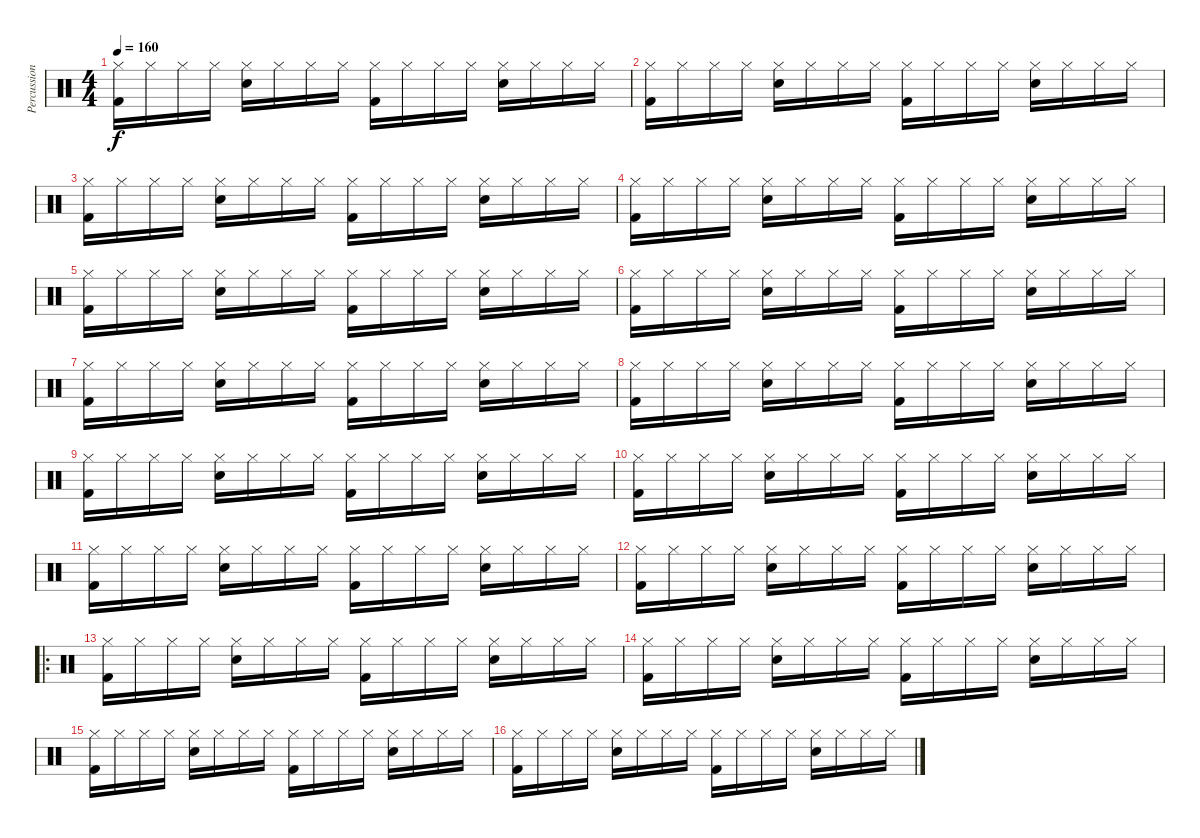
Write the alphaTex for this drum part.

\track ("Percussion" "Percussion") {instrument percussion}
\staff {score}
\articulation defaults
\ts (4 4)
\tempo 160
\clef neutral
\ks c
("Hi-Hat (closed)" "Kick (hit) 2").16{dy f} "Hi-Hat (closed)".16 "Hi-Hat (closed)".16 "Hi-Hat (closed)".16 ("Hi-Hat (closed)" "Snare (hit) 2").16 "Hi-Hat (closed)".16 "Hi-Hat (closed)".16 "Hi-Hat (closed)".16 ("Hi-Hat (closed)" "Kick (hit) 2").16 "Hi-Hat (closed)".16 "Hi-Hat (closed)".16 "Hi-Hat (closed)".16 ("Hi-Hat (closed)" "Snare (hit) 2").16 "Hi-Hat (closed)".16 "Hi-Hat (closed)".16 "Hi-Hat (closed)".16 |
("Hi-Hat (closed)" "Kick (hit) 2").16 "Hi-Hat (closed)".16 "Hi-Hat (closed)".16 "Hi-Hat (closed)".16 ("Hi-Hat (closed)" "Snare (hit) 2").16 "Hi-Hat (closed)".16 "Hi-Hat (closed)".16 "Hi-Hat (closed)".16 ("Hi-Hat (closed)" "Kick (hit) 2").16 "Hi-Hat (closed)".16 "Hi-Hat (closed)".16 "Hi-Hat (closed)".16 ("Hi-Hat (closed)" "Snare (hit) 2").16 "Hi-Hat (closed)".16 "Hi-Hat (closed)".16 "Hi-Hat (closed)".16 |
("Hi-Hat (closed)" "Kick (hit) 2").16 "Hi-Hat (closed)".16 "Hi-Hat (closed)".16 "Hi-Hat (closed)".16 ("Hi-Hat (closed)" "Snare (hit) 2").16 "Hi-Hat (closed)".16 "Hi-Hat (closed)".16 "Hi-Hat (closed)".16 ("Hi-Hat (closed)" "Kick (hit) 2").16 "Hi-Hat (closed)".16 "Hi-Hat (closed)".16 "Hi-Hat (closed)".16 ("Hi-Hat (closed)" "Snare (hit) 2").16 "Hi-Hat (closed)".16 "Hi-Hat (closed)".16 "Hi-Hat (closed)".16 |
("Hi-Hat (closed)" "Kick (hit) 2").16 "Hi-Hat (closed)".16 "Hi-Hat (closed)".16 "Hi-Hat (closed)".16 ("Hi-Hat (closed)" "Snare (hit) 2").16 "Hi-Hat (closed)".16 "Hi-Hat (closed)".16 "Hi-Hat (closed)".16 ("Hi-Hat (closed)" "Kick (hit) 2").16 "Hi-Hat (closed)".16 "Hi-Hat (closed)".16 "Hi-Hat (closed)".16 ("Hi-Hat (closed)" "Snare (hit) 2").16 "Hi-Hat (closed)".16 "Hi-Hat (closed)".16 "Hi-Hat (closed)".16 |
("Hi-Hat (closed)" "Kick (hit) 2").16 "Hi-Hat (closed)".16 "Hi-Hat (closed)".16 "Hi-Hat (closed)".16 ("Hi-Hat (closed)" "Snare (hit) 2").16 "Hi-Hat (closed)".16 "Hi-Hat (closed)".16 "Hi-Hat (closed)".16 ("Hi-Hat (closed)" "Kick (hit) 2").16 "Hi-Hat (closed)".16 "Hi-Hat (closed)".16 "Hi-Hat (closed)".16 ("Hi-Hat (closed)" "Snare (hit) 2").16 "Hi-Hat (closed)".16 "Hi-Hat (closed)".16 "Hi-Hat (closed)".16 |
("Hi-Hat (closed)" "Kick (hit) 2").16 "Hi-Hat (closed)".16 "Hi-Hat (closed)".16 "Hi-Hat (closed)".16 ("Hi-Hat (closed)" "Snare (hit) 2").16 "Hi-Hat (closed)".16 "Hi-Hat (closed)".16 "Hi-Hat (closed)".16 ("Hi-Hat (closed)" "Kick (hit) 2").16 "Hi-Hat (closed)".16 "Hi-Hat (closed)".16 "Hi-Hat (closed)".16 ("Hi-Hat (closed)" "Snare (hit) 2").16 "Hi-Hat (closed)".16 "Hi-Hat (closed)".16 "Hi-Hat (closed)".16 |
("Hi-Hat (closed)" "Kick (hit) 2").16 "Hi-Hat (closed)".16 "Hi-Hat (closed)".16 "Hi-Hat (closed)".16 ("Hi-Hat (closed)" "Snare (hit) 2").16 "Hi-Hat (closed)".16 "Hi-Hat (closed)".16 "Hi-Hat (closed)".16 ("Hi-Hat (closed)" "Kick (hit) 2").16 "Hi-Hat (closed)".16 "Hi-Hat (closed)".16 "Hi-Hat (closed)".16 ("Hi-Hat (closed)" "Snare (hit) 2").16 "Hi-Hat (closed)".16 "Hi-Hat (closed)".16 "Hi-Hat (closed)".16 |
("Hi-Hat (closed)" "Kick (hit) 2").16 "Hi-Hat (closed)".16 "Hi-Hat (closed)".16 "Hi-Hat (closed)".16 ("Hi-Hat (closed)" "Snare (hit) 2").16 "Hi-Hat (closed)".16 "Hi-Hat (closed)".16 "Hi-Hat (closed)".16 ("Hi-Hat (closed)" "Kick (hit) 2").16 "Hi-Hat (closed)".16 "Hi-Hat (closed)".16 "Hi-Hat (closed)".16 ("Hi-Hat (closed)" "Snare (hit) 2").16 "Hi-Hat (closed)".16 "Hi-Hat (closed)".16 "Hi-Hat (closed)".16 |
("Hi-Hat (closed)" "Kick (hit) 2").16 "Hi-Hat (closed)".16 "Hi-Hat (closed)".16 "Hi-Hat (closed)".16 ("Hi-Hat (closed)" "Snare (hit) 2").16 "Hi-Hat (closed)".16 "Hi-Hat (closed)".16 "Hi-Hat (closed)".16 ("Hi-Hat (closed)" "Kick (hit) 2").16 "Hi-Hat (closed)".16 "Hi-Hat (closed)".16 "Hi-Hat (closed)".16 ("Hi-Hat (closed)" "Snare (hit) 2").16 "Hi-Hat (closed)".16 "Hi-Hat (closed)".16 "Hi-Hat (closed)".16 |
("Hi-Hat (closed)" "Kick (hit) 2").16 "Hi-Hat (closed)".16 "Hi-Hat (closed)".16 "Hi-Hat (closed)".16 ("Hi-Hat (closed)" "Snare (hit) 2").16 "Hi-Hat (closed)".16 "Hi-Hat (closed)".16 "Hi-Hat (closed)".16 ("Hi-Hat (closed)" "Kick (hit) 2").16 "Hi-Hat (closed)".16 "Hi-Hat (closed)".16 "Hi-Hat (closed)".16 ("Hi-Hat (closed)" "Snare (hit) 2").16 "Hi-Hat (closed)".16 "Hi-Hat (closed)".16 "Hi-Hat (closed)".16 |
("Hi-Hat (closed)" "Kick (hit) 2").16 "Hi-Hat (closed)".16 "Hi-Hat (closed)".16 "Hi-Hat (closed)".16 ("Hi-Hat (closed)" "Snare (hit) 2").16 "Hi-Hat (closed)".16 "Hi-Hat (closed)".16 "Hi-Hat (closed)".16 ("Hi-Hat (closed)" "Kick (hit) 2").16 "Hi-Hat (closed)".16 "Hi-Hat (closed)".16 "Hi-Hat (closed)".16 ("Hi-Hat (closed)" "Snare (hit) 2").16 "Hi-Hat (closed)".16 "Hi-Hat (closed)".16 "Hi-Hat (closed)".16 |
("Hi-Hat (closed)" "Kick (hit) 2").16 "Hi-Hat (closed)".16 "Hi-Hat (closed)".16 "Hi-Hat (closed)".16 ("Hi-Hat (closed)" "Snare (hit) 2").16 "Hi-Hat (closed)".16 "Hi-Hat (closed)".16 "Hi-Hat (closed)".16 ("Hi-Hat (closed)" "Kick (hit) 2").16 "Hi-Hat (closed)".16 "Hi-Hat (closed)".16 "Hi-Hat (closed)".16 ("Hi-Hat (closed)" "Snare (hit) 2").16 "Hi-Hat (closed)".16 "Hi-Hat (closed)".16 "Hi-Hat (closed)".16 |
\ro
("Hi-Hat (closed)" "Kick (hit) 2").16 "Hi-Hat (closed)".16 "Hi-Hat (closed)".16 "Hi-Hat (closed)".16 ("Hi-Hat (closed)" "Snare (hit) 2").16 "Hi-Hat (closed)".16 "Hi-Hat (closed)".16 "Hi-Hat (closed)".16 ("Hi-Hat (closed)" "Kick (hit) 2").16 "Hi-Hat (closed)".16 "Hi-Hat (closed)".16 "Hi-Hat (closed)".16 ("Hi-Hat (closed)" "Snare (hit) 2").16 "Hi-Hat (closed)".16 "Hi-Hat (closed)".16 "Hi-Hat (closed)".16 |
("Hi-Hat (closed)" "Kick (hit) 2").16 "Hi-Hat (closed)".16 "Hi-Hat (closed)".16 "Hi-Hat (closed)".16 ("Hi-Hat (closed)" "Snare (hit) 2").16 "Hi-Hat (closed)".16 "Hi-Hat (closed)".16 "Hi-Hat (closed)".16 ("Hi-Hat (closed)" "Kick (hit) 2").16 "Hi-Hat (closed)".16 "Hi-Hat (closed)".16 "Hi-Hat (closed)".16 ("Hi-Hat (closed)" "Snare (hit) 2").16 "Hi-Hat (closed)".16 "Hi-Hat (closed)".16 "Hi-Hat (closed)".16 |
("Hi-Hat (closed)" "Kick (hit) 2").16 "Hi-Hat (closed)".16 "Hi-Hat (closed)".16 "Hi-Hat (closed)".16 ("Hi-Hat (closed)" "Snare (hit) 2").16 "Hi-Hat (closed)".16 "Hi-Hat (closed)".16 "Hi-Hat (closed)".16 ("Hi-Hat (closed)" "Kick (hit) 2").16 "Hi-Hat (closed)".16 "Hi-Hat (closed)".16 "Hi-Hat (closed)".16 ("Hi-Hat (closed)" "Snare (hit) 2").16 "Hi-Hat (closed)".16 "Hi-Hat (closed)".16 "Hi-Hat (closed)".16 |
("Hi-Hat (closed)" "Kick (hit) 2").16 "Hi-Hat (closed)".16 "Hi-Hat (closed)".16 "Hi-Hat (closed)".16 ("Hi-Hat (closed)" "Snare (hit) 2").16 "Hi-Hat (closed)".16 "Hi-Hat (closed)".16 "Hi-Hat (closed)".16 ("Hi-Hat (closed)" "Kick (hit) 2").16 "Hi-Hat (closed)".16 "Hi-Hat (closed)".16 "Hi-Hat (closed)".16 ("Hi-Hat (closed)" "Snare (hit) 2").16 "Hi-Hat (closed)".16 "Hi-Hat (closed)".16 "Hi-Hat (closed)".16
